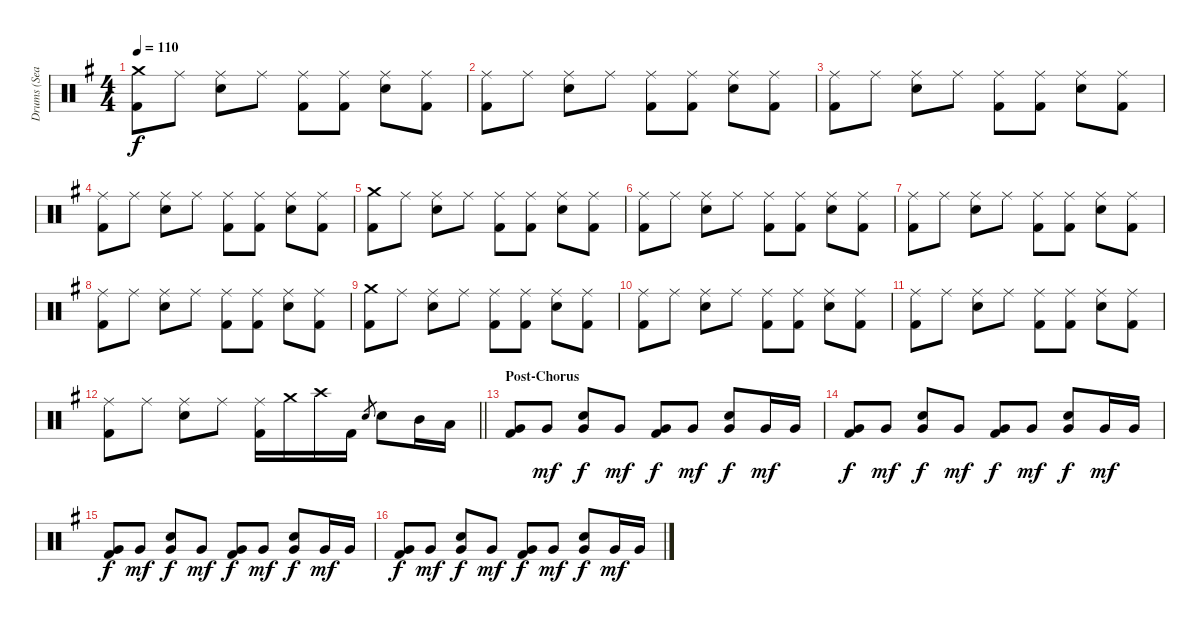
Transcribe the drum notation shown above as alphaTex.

\track ("Drums (Sean)" "Drums (Sea") {instrument percussion}
\staff {score}
\articulation defaults
\ts (4 4)
\tempo 110
\clef neutral
\ks g
("Crash medium (hit)" "Kick (hit) 2").8{dy f} "Ride (middle)".8 ("Ride (middle)" "Snare (hit) 2").8 "Ride (middle)".8 ("Ride (middle)" "Kick (hit) 2").8 ("Ride (middle)" "Kick (hit) 2").8 ("Ride (middle)" "Snare (hit) 2").8 ("Ride (middle)" "Kick (hit) 2").8 |
("Ride (middle)" "Kick (hit) 2").8 "Ride (middle)".8 ("Ride (middle)" "Snare (hit) 2").8 "Ride (middle)".8 ("Ride (middle)" "Kick (hit) 2").8 ("Ride (middle)" "Kick (hit) 2").8 ("Ride (middle)" "Snare (hit) 2").8 ("Ride (middle)" "Kick (hit) 2").8 |
("Ride (middle)" "Kick (hit) 2").8 "Ride (middle)".8 ("Ride (middle)" "Snare (hit) 2").8 "Ride (middle)".8 ("Ride (middle)" "Kick (hit) 2").8 ("Ride (middle)" "Kick (hit) 2").8 ("Ride (middle)" "Snare (hit) 2").8 ("Ride (middle)" "Kick (hit) 2").8 |
("Ride (middle)" "Kick (hit) 2").8 "Ride (middle)".8 ("Ride (middle)" "Snare (hit) 2").8 "Ride (middle)".8 ("Ride (middle)" "Kick (hit) 2").8 ("Ride (middle)" "Kick (hit) 2").8 ("Ride (middle)" "Snare (hit) 2").8 ("Ride (middle)" "Kick (hit) 2").8 |
("Crash medium (hit)" "Kick (hit) 2").8 "Ride (middle)".8 ("Ride (middle)" "Snare (hit) 2").8 "Ride (middle)".8 ("Ride (middle)" "Kick (hit) 2").8 ("Ride (middle)" "Kick (hit) 2").8 ("Ride (middle)" "Snare (hit) 2").8 ("Ride (middle)" "Kick (hit) 2").8 |
("Ride (middle)" "Kick (hit) 2").8 "Ride (middle)".8 ("Ride (middle)" "Snare (hit) 2").8 "Ride (middle)".8 ("Ride (middle)" "Kick (hit) 2").8 ("Ride (middle)" "Kick (hit) 2").8 ("Ride (middle)" "Snare (hit) 2").8 ("Ride (middle)" "Kick (hit) 2").8 |
("Ride (middle)" "Kick (hit) 2").8 "Ride (middle)".8 ("Ride (middle)" "Snare (hit) 2").8 "Ride (middle)".8 ("Ride (middle)" "Kick (hit) 2").8 ("Ride (middle)" "Kick (hit) 2").8 ("Ride (middle)" "Snare (hit) 2").8 ("Ride (middle)" "Kick (hit) 2").8 |
("Ride (middle)" "Kick (hit) 2").8 "Ride (middle)".8 ("Ride (middle)" "Snare (hit) 2").8 "Ride (middle)".8 ("Ride (middle)" "Kick (hit) 2").8 ("Ride (middle)" "Kick (hit) 2").8 ("Ride (middle)" "Snare (hit) 2").8 ("Ride (middle)" "Kick (hit) 2").8 |
("Crash medium (hit)" "Kick (hit) 2").8 "Ride (middle)".8 ("Ride (middle)" "Snare (hit) 2").8 "Ride (middle)".8 ("Ride (middle)" "Kick (hit) 2").8 ("Ride (middle)" "Kick (hit) 2").8 ("Ride (middle)" "Snare (hit) 2").8 ("Ride (middle)" "Kick (hit) 2").8 |
("Ride (middle)" "Kick (hit) 2").8 "Ride (middle)".8 ("Ride (middle)" "Snare (hit) 2").8 "Ride (middle)".8 ("Ride (middle)" "Kick (hit) 2").8 ("Ride (middle)" "Kick (hit) 2").8 ("Ride (middle)" "Snare (hit) 2").8 ("Ride (middle)" "Kick (hit) 2").8 |
("Ride (middle)" "Kick (hit) 2").8 "Ride (middle)".8 ("Ride (middle)" "Snare (hit) 2").8 "Ride (middle)".8 ("Ride (middle)" "Kick (hit) 2").8 ("Ride (middle)" "Kick (hit) 2").8 ("Ride (middle)" "Snare (hit) 2").8 ("Ride (middle)" "Kick (hit) 2").8 |
\barLineRight lightlight
("Ride (middle)" "Kick (hit) 2").8 "Ride (middle)".8 ("Ride (middle)" "Snare (hit) 2").8 "Ride (middle)".8 ("Ride (middle)" "Kick (hit) 2").16 "Crash medium (hit)".16 "Crash high (hit)".16 "Kick (hit) 2".16 "Snare (hit) 2".8{gr} "Snare (hit) 2".8 "Mid Tom (hit)".16 "Low Tom (hit)".16 |
\section ("" "Post-Chorus")
("Very Low Tom (hit)" "Kick (hit) 2").8 "Very Low Tom (hit)".8{dy mf} ("Very Low Tom (hit)" "Snare (hit) 2").8{dy f} "Very Low Tom (hit)".8{dy mf} ("Very Low Tom (hit)" "Kick (hit) 2").8{dy f} "Very Low Tom (hit)".8{dy mf} ("Very Low Tom (hit)" "Snare (hit) 2").8{dy f} "Very Low Tom (hit)".16{dy mf} "Very Low Tom (hit)".16 |
("Very Low Tom (hit)" "Kick (hit) 2").8{dy f} "Very Low Tom (hit)".8{dy mf} ("Very Low Tom (hit)" "Snare (hit) 2").8{dy f} "Very Low Tom (hit)".8{dy mf} ("Very Low Tom (hit)" "Kick (hit) 2").8{dy f} "Very Low Tom (hit)".8{dy mf} ("Very Low Tom (hit)" "Snare (hit) 2").8{dy f} "Very Low Tom (hit)".16{dy mf} "Very Low Tom (hit)".16 |
("Very Low Tom (hit)" "Kick (hit) 2").8{dy f} "Very Low Tom (hit)".8{dy mf} ("Very Low Tom (hit)" "Snare (hit) 2").8{dy f} "Very Low Tom (hit)".8{dy mf} ("Very Low Tom (hit)" "Kick (hit) 2").8{dy f} "Very Low Tom (hit)".8{dy mf} ("Very Low Tom (hit)" "Snare (hit) 2").8{dy f} "Very Low Tom (hit)".16{dy mf} "Very Low Tom (hit)".16 |
("Very Low Tom (hit)" "Kick (hit) 2").8{dy f} "Very Low Tom (hit)".8{dy mf} ("Very Low Tom (hit)" "Snare (hit) 2").8{dy f} "Very Low Tom (hit)".8{dy mf} ("Very Low Tom (hit)" "Kick (hit) 2").8{dy f} "Very Low Tom (hit)".8{dy mf} ("Very Low Tom (hit)" "Snare (hit) 2").8{dy f} "Very Low Tom (hit)".16{dy mf} "Very Low Tom (hit)".16
